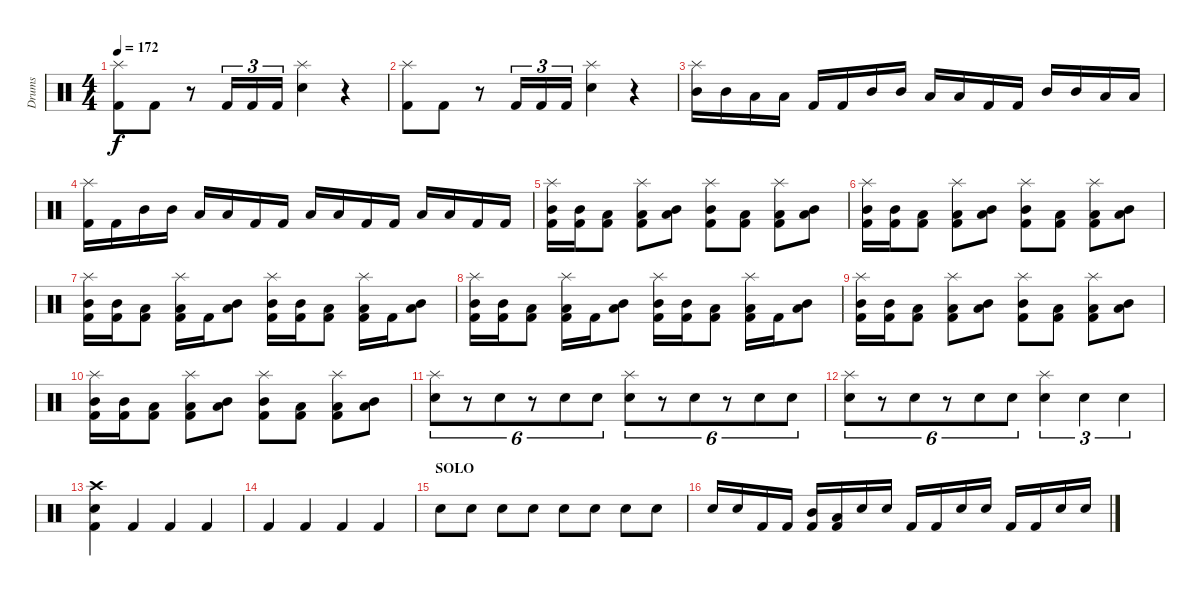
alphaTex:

\track ("Drums" "Drums") {instrument percussion}
\staff {score}
\articulation defaults
\ts (4 4)
\tempo 172
\clef neutral
\ks c
("Splash (hit)" "Kick (hit) 2").8{dy f} "Kick (hit) 2".8 r.8 "Kick (hit) 2".16{tu (3 2)} "Kick (hit) 2".16{tu (3 2)} "Kick (hit) 2".16{tu (3 2)} ("Splash (hit)" "Electric Snare (hit)").4 r.4 |
("Splash (hit)" "Kick (hit) 2").8 "Kick (hit) 2".8 r.8 "Kick (hit) 2".16{tu (3 2)} "Kick (hit) 2".16{tu (3 2)} "Kick (hit) 2".16{tu (3 2)} ("Splash (hit)" "Electric Snare (hit)").4 r.4 |
("Splash (hit)" "Mid Tom (hit)").16 "Mid Tom (hit)".16 "Low Tom (hit)".16 "Low Tom (hit)".16 "Kick (hit) 2".16 "Kick (hit) 2".16 "Mid Tom (hit)".16 "Mid Tom (hit)".16 "Low Tom (hit)".16 "Low Tom (hit)".16 "Kick (hit) 2".16 "Kick (hit) 2".16 "Mid Tom (hit)".16 "Mid Tom (hit)".16 "Low Tom (hit)".16 "Low Tom (hit)".16 |
("Splash (hit)" "Kick (hit) 2").16 "Kick (hit) 2".16 "Mid Tom (hit)".16 "Mid Tom (hit)".16 "Low Tom (hit)".16 "Low Tom (hit)".16 "Kick (hit) 2".16 "Kick (hit) 2".16 "Low Tom (hit)".16 "Low Tom (hit)".16 "Kick (hit) 2".16 "Kick (hit) 2".16 "Low Tom (hit)".16 "Low Tom (hit)".16 "Kick (hit) 2".16 "Kick (hit) 2".16 |
("Splash (hit)" "Mid Tom (hit)" "Kick (hit) 2").16 ("Mid Tom (hit)" "Kick (hit) 2").16 ("Low Tom (hit)" "Kick (hit) 2").8 ("Splash (hit)" "Low Tom (hit)" "Kick (hit) 2").8 ("Mid Tom (hit)" "Low Tom (hit)").8 ("Splash (hit)" "Mid Tom (hit)" "Kick (hit) 2").8 ("Low Tom (hit)" "Kick (hit) 2").8 ("Splash (hit)" "Low Tom (hit)" "Kick (hit) 2").8 ("Mid Tom (hit)" "Low Tom (hit)").8 |
("Splash (hit)" "Mid Tom (hit)" "Kick (hit) 2").16 ("Mid Tom (hit)" "Kick (hit) 2").16 ("Low Tom (hit)" "Kick (hit) 2").8 ("Splash (hit)" "Low Tom (hit)" "Kick (hit) 2").8 ("Mid Tom (hit)" "Low Tom (hit)").8 ("Splash (hit)" "Mid Tom (hit)" "Kick (hit) 2").8 ("Low Tom (hit)" "Kick (hit) 2").8 ("Splash (hit)" "Low Tom (hit)" "Kick (hit) 2").8 ("Mid Tom (hit)" "Low Tom (hit)").8 |
("Splash (hit)" "Mid Tom (hit)" "Kick (hit) 2").16 ("Mid Tom (hit)" "Kick (hit) 2").16 ("Low Tom (hit)" "Kick (hit) 2").8 ("Splash (hit)" "Low Tom (hit)" "Kick (hit) 2").16 "Kick (hit) 2".16 ("Mid Tom (hit)" "Low Tom (hit)").8 ("Splash (hit)" "Mid Tom (hit)" "Kick (hit) 2").16 ("Mid Tom (hit)" "Kick (hit) 2").16 ("Low Tom (hit)" "Kick (hit) 2").8 ("Splash (hit)" "Low Tom (hit)" "Kick (hit) 2").16 "Kick (hit) 2".16 ("Mid Tom (hit)" "Low Tom (hit)").8 |
("Splash (hit)" "Mid Tom (hit)" "Kick (hit) 2").16 ("Mid Tom (hit)" "Kick (hit) 2").16 ("Low Tom (hit)" "Kick (hit) 2").8 ("Splash (hit)" "Low Tom (hit)" "Kick (hit) 2").16 "Kick (hit) 2".16 ("Mid Tom (hit)" "Low Tom (hit)").8 ("Splash (hit)" "Mid Tom (hit)" "Kick (hit) 2").16 ("Mid Tom (hit)" "Kick (hit) 2").16 ("Low Tom (hit)" "Kick (hit) 2").8 ("Splash (hit)" "Low Tom (hit)" "Kick (hit) 2").16 "Kick (hit) 2".16 ("Mid Tom (hit)" "Low Tom (hit)").8 |
("Splash (hit)" "Mid Tom (hit)" "Kick (hit) 2").16 ("Mid Tom (hit)" "Kick (hit) 2").16 ("Low Tom (hit)" "Kick (hit) 2").8 ("Splash (hit)" "Low Tom (hit)" "Kick (hit) 2").8 ("Mid Tom (hit)" "Low Tom (hit)").8 ("Splash (hit)" "Mid Tom (hit)" "Kick (hit) 2").8 ("Low Tom (hit)" "Kick (hit) 2").8 ("Splash (hit)" "Low Tom (hit)" "Kick (hit) 2").8 ("Mid Tom (hit)" "Low Tom (hit)").8 |
("Splash (hit)" "Mid Tom (hit)" "Kick (hit) 2").16 ("Mid Tom (hit)" "Kick (hit) 2").16 ("Low Tom (hit)" "Kick (hit) 2").8 ("Splash (hit)" "Low Tom (hit)" "Kick (hit) 2").8 ("Mid Tom (hit)" "Low Tom (hit)").8 ("Splash (hit)" "Mid Tom (hit)" "Kick (hit) 2").8 ("Low Tom (hit)" "Kick (hit) 2").8 ("Splash (hit)" "Low Tom (hit)" "Kick (hit) 2").8 ("Mid Tom (hit)" "Low Tom (hit)").8 |
("Splash (hit)" "Electric Snare (hit)").8{tu (6 4)} r.8{tu (6 4)} "Electric Snare (hit)".8{tu (6 4)} r.8{tu (6 4)} "Electric Snare (hit)".8{tu (6 4)} "Electric Snare (hit)".8{tu (6 4)} ("Splash (hit)" "Electric Snare (hit)").8{tu (6 4)} r.8{tu (6 4)} "Electric Snare (hit)".8{tu (6 4)} r.8{tu (6 4)} "Electric Snare (hit)".8{tu (6 4)} "Electric Snare (hit)".8{tu (6 4)} |
("Splash (hit)" "Electric Snare (hit)").8{tu (6 4)} r.8{tu (6 4)} "Electric Snare (hit)".8{tu (6 4)} r.8{tu (6 4)} "Electric Snare (hit)".8{tu (6 4)} "Electric Snare (hit)".8{tu (6 4)} ("Splash (hit)" "Electric Snare (hit)").4{tu (3 2)} "Electric Snare (hit)".4{tu (3 2)} "Electric Snare (hit)".4{tu (3 2)} |
("Crash high (hit)" "Electric Snare (hit)" "Kick (hit) 2").4 "Kick (hit) 2".4 "Kick (hit) 2".4 "Kick (hit) 2".4 |
"Kick (hit) 2".4 "Kick (hit) 2".4 "Kick (hit) 2".4 "Kick (hit) 2".4 |
\section ("" "SOLO")
"Electric Snare (hit)".8 "Electric Snare (hit)".8 "Electric Snare (hit)".8 "Electric Snare (hit)".8 "Electric Snare (hit)".8 "Electric Snare (hit)".8 "Electric Snare (hit)".8 "Electric Snare (hit)".8 |
"Electric Snare (hit)".16 "Electric Snare (hit)".16 "Kick (hit) 2".16 "Kick (hit) 2".16 ("Mid Tom (hit)" "Kick (hit) 2").16 ("Low Tom (hit)" "Kick (hit) 2").16 "Electric Snare (hit)".16 "Electric Snare (hit)".16 "Kick (hit) 2".16 "Kick (hit) 2".16 "Electric Snare (hit)".16 "Electric Snare (hit)".16 "Kick (hit) 2".16 "Kick (hit) 2".16 "Electric Snare (hit)".16 "Electric Snare (hit)".16
